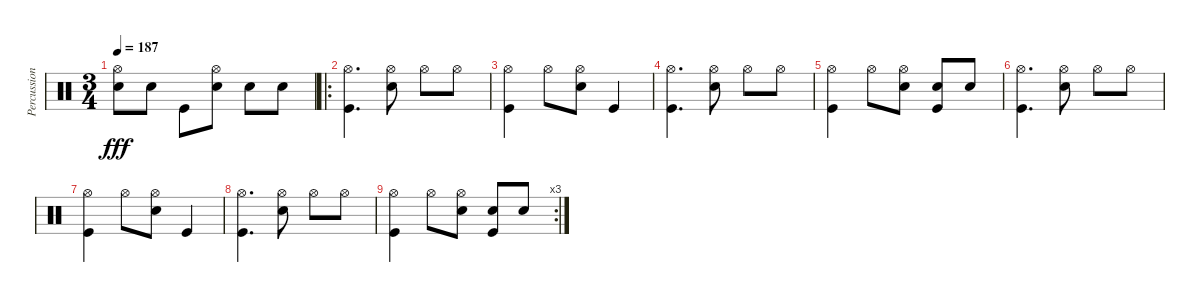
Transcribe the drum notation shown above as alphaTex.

\track ("Percussion" "Percussion") {instrument percussion}
\staff {score}
\articulation defaults
\ts (3 4)
\tempo 187
\clef neutral
\ks c
("Hi-Hat (open)" "Snare (hit) 2").8{dy fff} "Snare (hit) 2".8 "Kick (hit)".8 ("Hi-Hat (open)" "Snare (hit) 2").8 "Snare (hit) 2".8 "Snare (hit) 2".8 |
\ro
("Hi-Hat (open)" "Kick (hit)").4{d} ("Hi-Hat (open)" "Snare (hit) 2").8 "Hi-Hat (open)".8 "Hi-Hat (open)".8 |
("Hi-Hat (open)" "Kick (hit)").4 "Hi-Hat (open)".8 ("Hi-Hat (open)" "Snare (hit) 2").8 "Kick (hit)".4 |
("Hi-Hat (open)" "Kick (hit)").4{d} ("Hi-Hat (open)" "Snare (hit) 2").8 "Hi-Hat (open)".8 "Hi-Hat (open)".8 |
("Hi-Hat (open)" "Kick (hit)").4 "Hi-Hat (open)".8 ("Hi-Hat (open)" "Snare (hit) 2").8 ("Snare (hit) 2" "Kick (hit)").8 "Snare (hit) 2".8 |
("Hi-Hat (open)" "Kick (hit)").4{d} ("Hi-Hat (open)" "Snare (hit) 2").8 "Hi-Hat (open)".8 "Hi-Hat (open)".8 |
("Hi-Hat (open)" "Kick (hit)").4 "Hi-Hat (open)".8 ("Hi-Hat (open)" "Snare (hit) 2").8 "Kick (hit)".4 |
("Hi-Hat (open)" "Kick (hit)").4{d} ("Hi-Hat (open)" "Snare (hit) 2").8 "Hi-Hat (open)".8 "Hi-Hat (open)".8 |
\rc 3
("Hi-Hat (open)" "Kick (hit)").4 "Hi-Hat (open)".8 ("Hi-Hat (open)" "Snare (hit) 2").8 ("Snare (hit) 2" "Kick (hit)").8 "Snare (hit) 2".8
